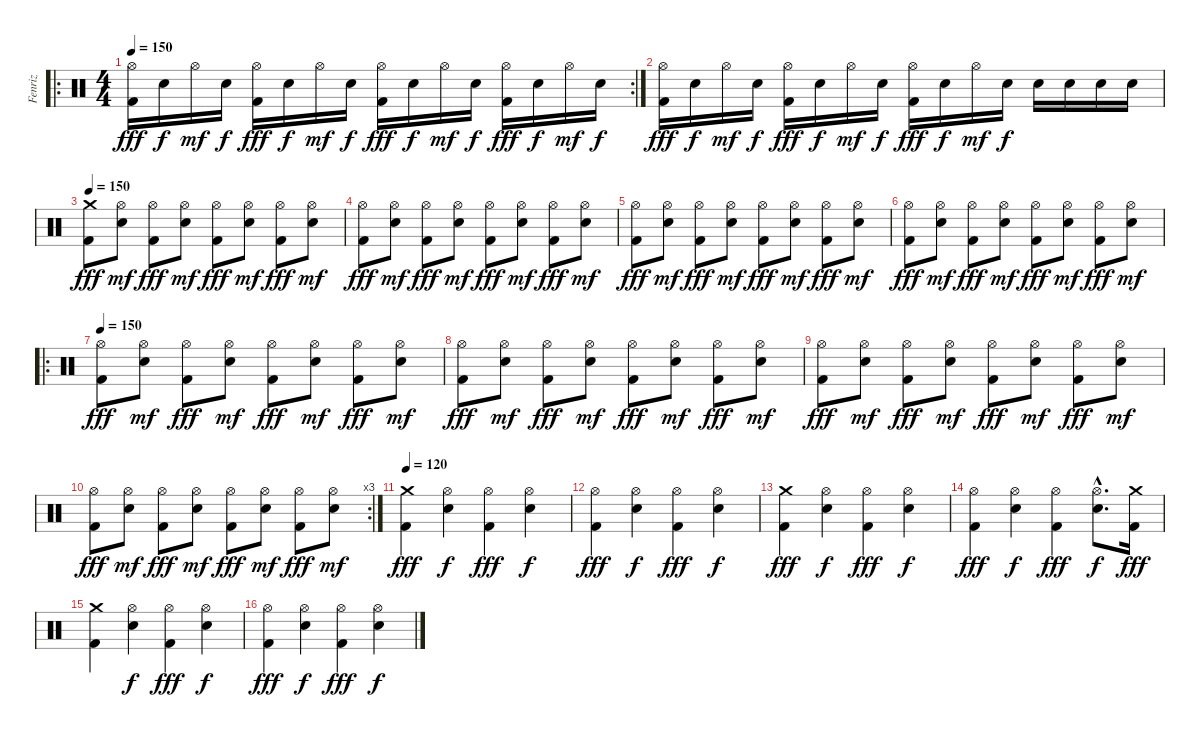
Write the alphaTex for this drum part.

\track ("Fenriz" "Fenriz") {instrument percussion}
\staff {score}
\articulation defaults
\ro
\rc 2
\ts (4 4)
\tempo 150
\clef neutral
\ks c
("Hi-Hat (open)" "Kick (hit) 2").16{dy fff} "Electric Snare (hit)".16{dy f} "Hi-Hat (open)".16{dy mf} "Electric Snare (hit)".16{dy f} ("Hi-Hat (open)" "Kick (hit) 2").16{dy fff} "Electric Snare (hit)".16{dy f} "Hi-Hat (open)".16{dy mf} "Electric Snare (hit)".16{dy f} ("Hi-Hat (open)" "Kick (hit) 2").16{dy fff} "Electric Snare (hit)".16{dy f} "Hi-Hat (open)".16{dy mf} "Electric Snare (hit)".16{dy f} ("Hi-Hat (open)" "Kick (hit) 2").16{dy fff} "Electric Snare (hit)".16{dy f} "Hi-Hat (open)".16{dy mf} "Electric Snare (hit)".16{dy f} |
("Hi-Hat (open)" "Kick (hit) 2").16{dy fff} "Electric Snare (hit)".16{dy f} "Hi-Hat (open)".16{dy mf} "Electric Snare (hit)".16{dy f} ("Hi-Hat (open)" "Kick (hit) 2").16{dy fff} "Electric Snare (hit)".16{dy f} "Hi-Hat (open)".16{dy mf} "Electric Snare (hit)".16{dy f} ("Hi-Hat (open)" "Kick (hit) 2").16{dy fff} "Electric Snare (hit)".16{dy f} "Hi-Hat (open)".16{dy mf} "Electric Snare (hit)".16{dy f} "Electric Snare (hit)".16 "Electric Snare (hit)".16 "Electric Snare (hit)".16 "Electric Snare (hit)".16 |
\tempo 150
("Crash medium (hit)" "Kick (hit) 2").8{dy fff} ("Hi-Hat (open)" "Electric Snare (hit)").8{dy mf} ("Hi-Hat (open)" "Kick (hit) 2").8{dy fff} ("Hi-Hat (open)" "Electric Snare (hit)").8{dy mf} ("Hi-Hat (open)" "Kick (hit) 2").8{dy fff} ("Hi-Hat (open)" "Electric Snare (hit)").8{dy mf} ("Hi-Hat (open)" "Kick (hit) 2").8{dy fff} ("Hi-Hat (open)" "Electric Snare (hit)").8{dy mf} |
("Hi-Hat (open)" "Kick (hit) 2").8{dy fff} ("Hi-Hat (open)" "Electric Snare (hit)").8{dy mf} ("Hi-Hat (open)" "Kick (hit) 2").8{dy fff} ("Hi-Hat (open)" "Electric Snare (hit)").8{dy mf} ("Hi-Hat (open)" "Kick (hit) 2").8{dy fff} ("Hi-Hat (open)" "Electric Snare (hit)").8{dy mf} ("Hi-Hat (open)" "Kick (hit) 2").8{dy fff} ("Hi-Hat (open)" "Electric Snare (hit)").8{dy mf} |
("Hi-Hat (open)" "Kick (hit) 2").8{dy fff} ("Hi-Hat (open)" "Electric Snare (hit)").8{dy mf} ("Hi-Hat (open)" "Kick (hit) 2").8{dy fff} ("Hi-Hat (open)" "Electric Snare (hit)").8{dy mf} ("Hi-Hat (open)" "Kick (hit) 2").8{dy fff} ("Hi-Hat (open)" "Electric Snare (hit)").8{dy mf} ("Hi-Hat (open)" "Kick (hit) 2").8{dy fff} ("Hi-Hat (open)" "Electric Snare (hit)").8{dy mf} |
("Hi-Hat (open)" "Kick (hit) 2").8{dy fff} ("Hi-Hat (open)" "Electric Snare (hit)").8{dy mf} ("Hi-Hat (open)" "Kick (hit) 2").8{dy fff} ("Hi-Hat (open)" "Electric Snare (hit)").8{dy mf} ("Hi-Hat (open)" "Kick (hit) 2").8{dy fff} ("Hi-Hat (open)" "Electric Snare (hit)").8{dy mf} ("Hi-Hat (open)" "Kick (hit) 2").8{dy fff} ("Hi-Hat (open)" "Electric Snare (hit)").8{dy mf} |
\ro
\tempo 150
("Hi-Hat (open)" "Kick (hit) 2").8{dy fff} ("Hi-Hat (open)" "Electric Snare (hit)").8{dy mf} ("Hi-Hat (open)" "Kick (hit) 2").8{dy fff} ("Hi-Hat (open)" "Electric Snare (hit)").8{dy mf} ("Hi-Hat (open)" "Kick (hit) 2").8{dy fff} ("Hi-Hat (open)" "Electric Snare (hit)").8{dy mf} ("Hi-Hat (open)" "Kick (hit) 2").8{dy fff} ("Hi-Hat (open)" "Electric Snare (hit)").8{dy mf} |
("Hi-Hat (open)" "Kick (hit) 2").8{dy fff} ("Hi-Hat (open)" "Electric Snare (hit)").8{dy mf} ("Hi-Hat (open)" "Kick (hit) 2").8{dy fff} ("Hi-Hat (open)" "Electric Snare (hit)").8{dy mf} ("Hi-Hat (open)" "Kick (hit) 2").8{dy fff} ("Hi-Hat (open)" "Electric Snare (hit)").8{dy mf} ("Hi-Hat (open)" "Kick (hit) 2").8{dy fff} ("Hi-Hat (open)" "Electric Snare (hit)").8{dy mf} |
("Hi-Hat (open)" "Kick (hit) 2").8{dy fff} ("Hi-Hat (open)" "Electric Snare (hit)").8{dy mf} ("Hi-Hat (open)" "Kick (hit) 2").8{dy fff} ("Hi-Hat (open)" "Electric Snare (hit)").8{dy mf} ("Hi-Hat (open)" "Kick (hit) 2").8{dy fff} ("Hi-Hat (open)" "Electric Snare (hit)").8{dy mf} ("Hi-Hat (open)" "Kick (hit) 2").8{dy fff} ("Hi-Hat (open)" "Electric Snare (hit)").8{dy mf} |
\rc 3
("Hi-Hat (open)" "Kick (hit) 2").8{dy fff} ("Hi-Hat (open)" "Electric Snare (hit)").8{dy mf} ("Hi-Hat (open)" "Kick (hit) 2").8{dy fff} ("Hi-Hat (open)" "Electric Snare (hit)").8{dy mf} ("Hi-Hat (open)" "Kick (hit) 2").8{dy fff} ("Hi-Hat (open)" "Electric Snare (hit)").8{dy mf} ("Hi-Hat (open)" "Kick (hit) 2").8{dy fff} ("Hi-Hat (open)" "Electric Snare (hit)").8{dy mf} |
\tempo 120
("Crash medium (hit)" "Kick (hit) 2").4{dy fff} ("Hi-Hat (open)" "Electric Snare (hit)").4{dy f} ("Hi-Hat (open)" "Kick (hit) 2").4{dy fff} ("Hi-Hat (open)" "Electric Snare (hit)").4{dy f} |
("Hi-Hat (open)" "Kick (hit) 2").4{dy fff} ("Hi-Hat (open)" "Electric Snare (hit)").4{dy f} ("Hi-Hat (open)" "Kick (hit) 2").4{dy fff} ("Hi-Hat (open)" "Electric Snare (hit)").4{dy f} |
("Crash medium (hit)" "Kick (hit) 2").4{dy fff} ("Hi-Hat (open)" "Electric Snare (hit)").4{dy f} ("Hi-Hat (open)" "Kick (hit) 2").4{dy fff} ("Hi-Hat (open)" "Electric Snare (hit)").4{dy f} |
("Hi-Hat (open)" "Kick (hit) 2").4{dy fff} ("Hi-Hat (open)" "Electric Snare (hit)").4{dy f} ("Hi-Hat (open)" "Kick (hit) 2").4{dy fff} ("Hi-Hat (open)"{hac} "Electric Snare (hit)"{hac}).8{d dy f} ("Crash medium (hit)" "Kick (hit) 2").16{dy fff} |
("Crash medium (hit)" "Kick (hit) 2").4 ("Hi-Hat (open)" "Electric Snare (hit)").4{dy f} ("Hi-Hat (open)" "Kick (hit) 2").4{dy fff} ("Hi-Hat (open)" "Electric Snare (hit)").4{dy f} |
("Hi-Hat (open)" "Kick (hit) 2").4{dy fff} ("Hi-Hat (open)" "Electric Snare (hit)").4{dy f} ("Hi-Hat (open)" "Kick (hit) 2").4{dy fff} ("Hi-Hat (open)" "Electric Snare (hit)").4{dy f}
